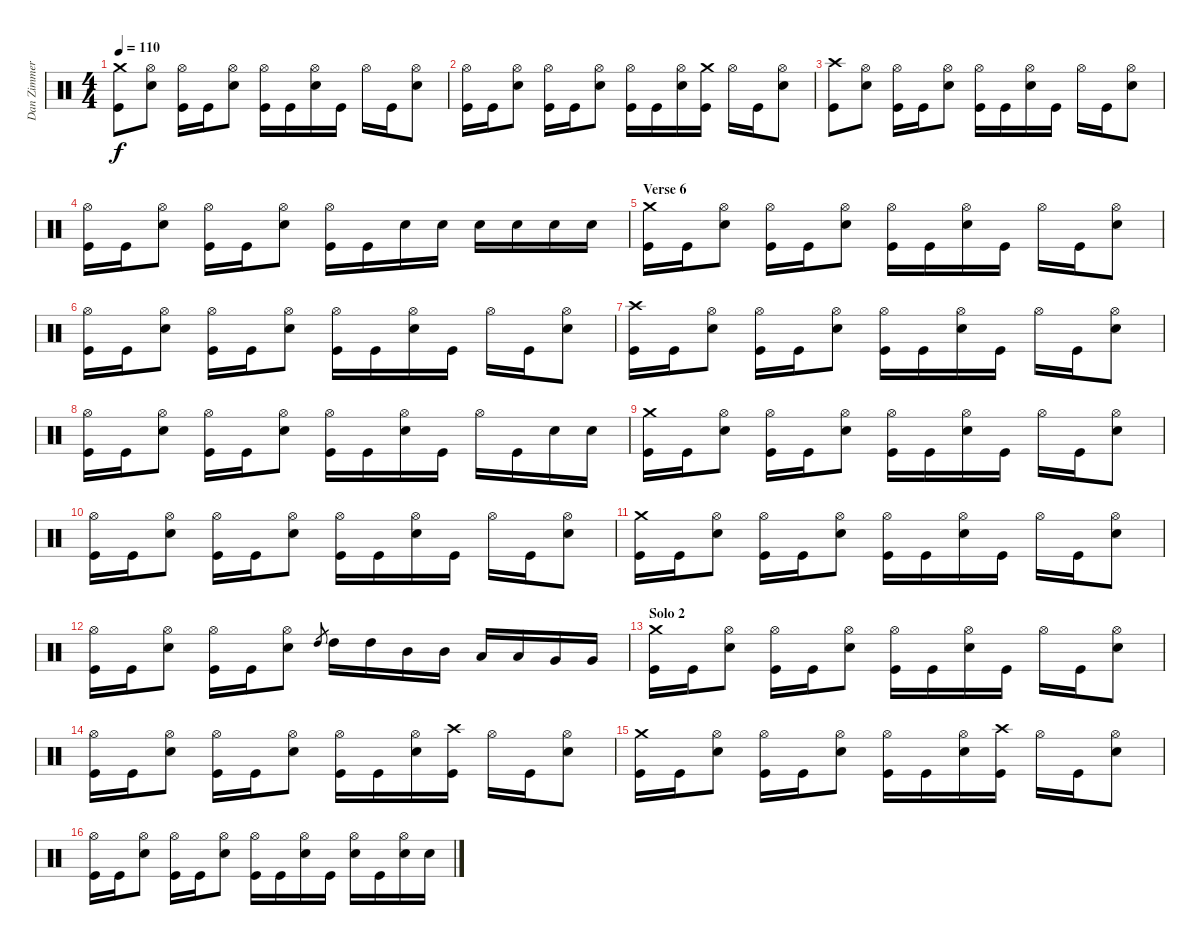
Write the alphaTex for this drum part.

\track ("Dan Zimmerman" "Dan Zimmer") {instrument percussion}
\staff {score}
\articulation defaults
\ts (4 4)
\tempo 110
\clef neutral
\ks c
("Crash medium (hit)" "Kick (hit)").8{dy f} ("Hi-Hat (open)" "Snare (hit) 2").8 ("Hi-Hat (open)" "Kick (hit)").16 "Kick (hit)".16 ("Hi-Hat (open)" "Snare (hit) 2").8 ("Hi-Hat (open)" "Kick (hit)").16 "Kick (hit)".16 ("Hi-Hat (open)" "Snare (hit) 2").16 "Kick (hit)".16 "Hi-Hat (open)".16 "Kick (hit)".16 ("Hi-Hat (open)" "Snare (hit) 2").8 |
("Hi-Hat (open)" "Kick (hit)").16 "Kick (hit)".16 ("Hi-Hat (open)" "Snare (hit) 2").8 ("Hi-Hat (open)" "Kick (hit)").16 "Kick (hit)".16 ("Hi-Hat (open)" "Snare (hit) 2").8 ("Hi-Hat (open)" "Kick (hit)").16 "Kick (hit)".16 ("Hi-Hat (open)" "Snare (hit) 2").16 ("Crash medium (hit)" "Kick (hit)").16 "Hi-Hat (open)".16 "Kick (hit)".16 ("Hi-Hat (open)" "Snare (hit) 2").8 |
("Crash high (hit)" "Kick (hit)").8 ("Hi-Hat (open)" "Snare (hit) 2").8 ("Hi-Hat (open)" "Kick (hit)").16 "Kick (hit)".16 ("Hi-Hat (open)" "Snare (hit) 2").8 ("Hi-Hat (open)" "Kick (hit)").16 "Kick (hit)".16 ("Hi-Hat (open)" "Snare (hit) 2").16 "Kick (hit)".16 "Hi-Hat (open)".16 "Kick (hit)".16 ("Hi-Hat (open)" "Snare (hit) 2").8 |
("Hi-Hat (open)" "Kick (hit)").16 "Kick (hit)".16 ("Hi-Hat (open)" "Snare (hit) 2").8 ("Hi-Hat (open)" "Kick (hit)").16 "Kick (hit)".16 ("Hi-Hat (open)" "Snare (hit) 2").8 ("Hi-Hat (open)" "Kick (hit)").16 "Kick (hit)".16 "Snare (hit) 2".16 "Snare (hit) 2".16 "Snare (hit) 2".16 "Snare (hit) 2".16 "Snare (hit) 2".16 "Snare (hit) 2".16 |
\section ("" "Verse 6")
("Crash medium (hit)" "Kick (hit)").16 "Kick (hit)".16 ("Hi-Hat (open)" "Snare (hit) 2").8 ("Hi-Hat (open)" "Kick (hit)").16 "Kick (hit)".16 ("Hi-Hat (open)" "Snare (hit) 2").8 ("Hi-Hat (open)" "Kick (hit)").16 "Kick (hit)".16 ("Hi-Hat (open)" "Snare (hit) 2").16 "Kick (hit)".16 "Hi-Hat (open)".16 "Kick (hit)".16 ("Hi-Hat (open)" "Snare (hit) 2").8 |
("Hi-Hat (open)" "Kick (hit)").16 "Kick (hit)".16 ("Hi-Hat (open)" "Snare (hit) 2").8 ("Hi-Hat (open)" "Kick (hit)").16 "Kick (hit)".16 ("Hi-Hat (open)" "Snare (hit) 2").8 ("Hi-Hat (open)" "Kick (hit)").16 "Kick (hit)".16 ("Hi-Hat (open)" "Snare (hit) 2").16 "Kick (hit)".16 "Hi-Hat (open)".16 "Kick (hit)".16 ("Hi-Hat (open)" "Snare (hit) 2").8 |
("Crash high (hit)" "Kick (hit)").16 "Kick (hit)".16 ("Hi-Hat (open)" "Snare (hit) 2").8 ("Hi-Hat (open)" "Kick (hit)").16 "Kick (hit)".16 ("Hi-Hat (open)" "Snare (hit) 2").8 ("Hi-Hat (open)" "Kick (hit)").16 "Kick (hit)".16 ("Hi-Hat (open)" "Snare (hit) 2").16 "Kick (hit)".16 "Hi-Hat (open)".16 "Kick (hit)".16 ("Hi-Hat (open)" "Snare (hit) 2").8 |
("Hi-Hat (open)" "Kick (hit)").16 "Kick (hit)".16 ("Hi-Hat (open)" "Snare (hit) 2").8 ("Hi-Hat (open)" "Kick (hit)").16 "Kick (hit)".16 ("Hi-Hat (open)" "Snare (hit) 2").8 ("Hi-Hat (open)" "Kick (hit)").16 "Kick (hit)".16 ("Hi-Hat (open)" "Snare (hit) 2").16 "Kick (hit)".16 "Hi-Hat (open)".16 "Kick (hit)".16 "Snare (hit) 2".16 "Snare (hit) 2".16 |
("Crash medium (hit)" "Kick (hit)").16 "Kick (hit)".16 ("Hi-Hat (open)" "Snare (hit) 2").8 ("Hi-Hat (open)" "Kick (hit)").16 "Kick (hit)".16 ("Hi-Hat (open)" "Snare (hit) 2").8 ("Hi-Hat (open)" "Kick (hit)").16 "Kick (hit)".16 ("Hi-Hat (open)" "Snare (hit) 2").16 "Kick (hit)".16 "Hi-Hat (open)".16 "Kick (hit)".16 ("Hi-Hat (open)" "Snare (hit) 2").8 |
("Hi-Hat (open)" "Kick (hit)").16 "Kick (hit)".16 ("Hi-Hat (open)" "Snare (hit) 2").8 ("Hi-Hat (open)" "Kick (hit)").16 "Kick (hit)".16 ("Hi-Hat (open)" "Snare (hit) 2").8 ("Hi-Hat (open)" "Kick (hit)").16 "Kick (hit)".16 ("Hi-Hat (open)" "Snare (hit) 2").16 "Kick (hit)".16 "Hi-Hat (open)".16 "Kick (hit)".16 ("Hi-Hat (open)" "Snare (hit) 2").8 |
("Crash medium (hit)" "Kick (hit)").16 "Kick (hit)".16 ("Hi-Hat (open)" "Snare (hit) 2").8 ("Hi-Hat (open)" "Kick (hit)").16 "Kick (hit)".16 ("Hi-Hat (open)" "Snare (hit) 2").8 ("Hi-Hat (open)" "Kick (hit)").16 "Kick (hit)".16 ("Hi-Hat (open)" "Snare (hit) 2").16 "Kick (hit)".16 "Hi-Hat (open)".16 "Kick (hit)".16 ("Hi-Hat (open)" "Snare (hit) 2").8 |
("Hi-Hat (open)" "Kick (hit)").16 "Kick (hit)".16 ("Hi-Hat (open)" "Snare (hit) 2").8 ("Hi-Hat (open)" "Kick (hit)").16 "Kick (hit)".16 ("Hi-Hat (open)" "Snare (hit) 2").8 "High Tom (hit)".8{gr} "High Tom (hit)".16 "High Tom (hit)".16 "Mid Tom (hit)".16 "Mid Tom (hit)".16 "Low Tom (hit)".16 "Low Tom (hit)".16 "Very Low Tom (hit)".16 "Very Low Tom (hit)".16 |
\section ("" "Solo 2")
("Crash medium (hit)" "Kick (hit)").16 "Kick (hit)".16 ("Hi-Hat (open)" "Snare (hit) 2").8 ("Hi-Hat (open)" "Kick (hit)").16 "Kick (hit)".16 ("Hi-Hat (open)" "Snare (hit) 2").8 ("Hi-Hat (open)" "Kick (hit)").16 "Kick (hit)".16 ("Hi-Hat (open)" "Snare (hit) 2").16 "Kick (hit)".16 "Hi-Hat (open)".16 "Kick (hit)".16 ("Hi-Hat (open)" "Snare (hit) 2").8 |
("Hi-Hat (open)" "Kick (hit)").16 "Kick (hit)".16 ("Hi-Hat (open)" "Snare (hit) 2").8 ("Hi-Hat (open)" "Kick (hit)").16 "Kick (hit)".16 ("Hi-Hat (open)" "Snare (hit) 2").8 ("Hi-Hat (open)" "Kick (hit)").16 "Kick (hit)".16 ("Hi-Hat (open)" "Snare (hit) 2").16 ("Crash high (hit)" "Kick (hit)").16 "Hi-Hat (open)".16 "Kick (hit)".16 ("Hi-Hat (open)" "Snare (hit) 2").8 |
("Crash medium (hit)" "Kick (hit)").16 "Kick (hit)".16 ("Hi-Hat (open)" "Snare (hit) 2").8 ("Hi-Hat (open)" "Kick (hit)").16 "Kick (hit)".16 ("Hi-Hat (open)" "Snare (hit) 2").8 ("Hi-Hat (open)" "Kick (hit)").16 "Kick (hit)".16 ("Hi-Hat (open)" "Snare (hit) 2").16 ("Crash high (hit)" "Kick (hit)").16 "Hi-Hat (open)".16 "Kick (hit)".16 ("Hi-Hat (open)" "Snare (hit) 2").8 |
("Hi-Hat (open)" "Kick (hit)").16 "Kick (hit)".16 ("Hi-Hat (open)" "Snare (hit) 2").8 ("Hi-Hat (open)" "Kick (hit)").16 "Kick (hit)".16 ("Hi-Hat (open)" "Snare (hit) 2").8 ("Hi-Hat (open)" "Kick (hit)").16 "Kick (hit)".16 ("Hi-Hat (open)" "Snare (hit) 2").16 "Kick (hit)".16 ("Hi-Hat (open)" "Snare (hit) 2").16 "Kick (hit)".16 ("Hi-Hat (open)" "Snare (hit) 2").16 "Snare (hit) 2".16
